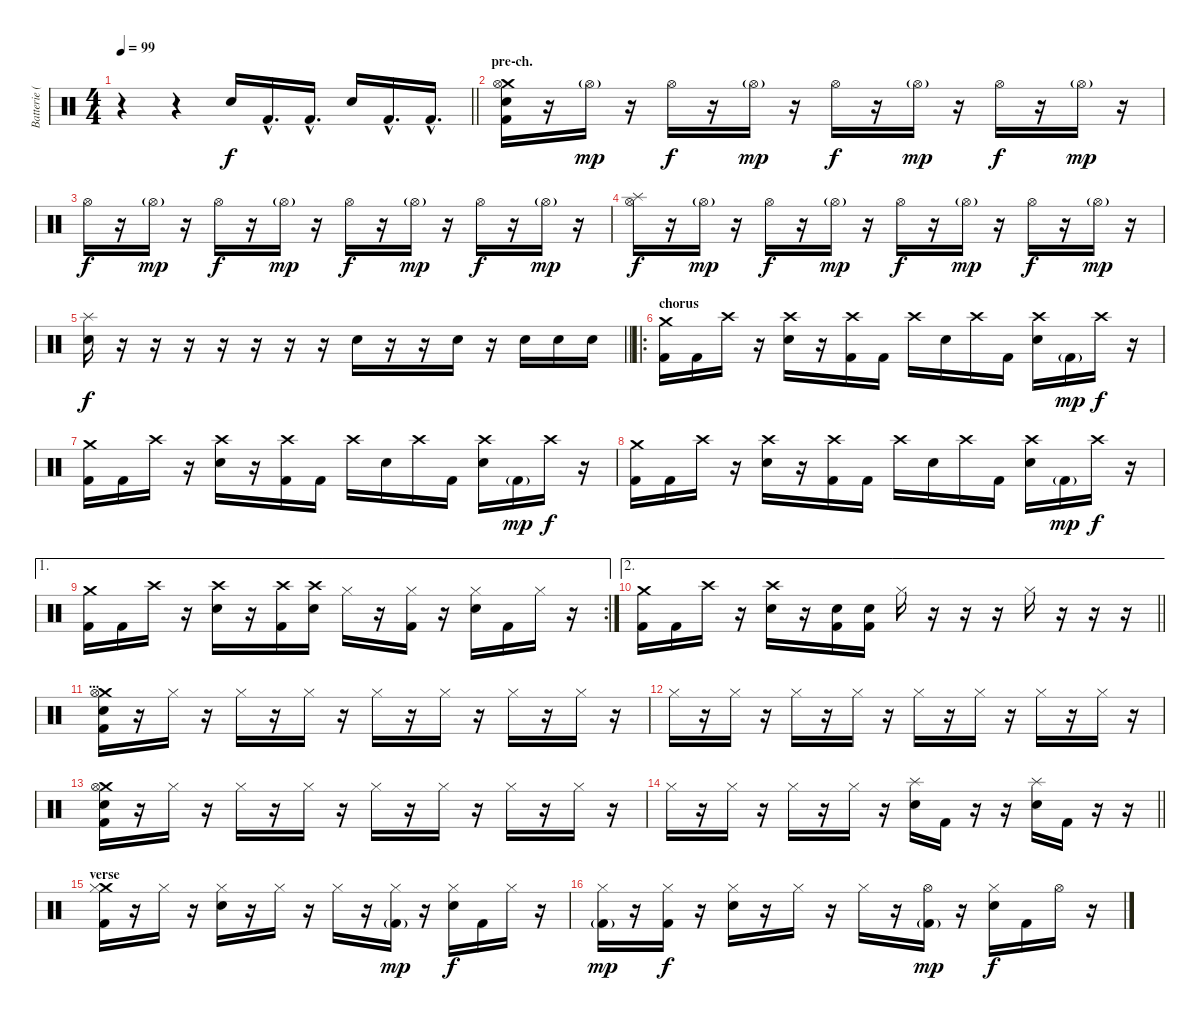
\track ("Batterie (John)" "Batterie (") {instrument percussion}
\staff {score}
\articulation defaults
\ts (4 4)
\tempo 99
\clef neutral
\barLineRight lightlight
\ks c
r.4{dy f} r.4 "Electric Snare (hit)".16 "Kick (hit) 2"{hac}.16{d} "Kick (hit) 2"{hac}.16{d} "Electric Snare (hit)".16 "Kick (hit) 2"{hac}.16{d} "Kick (hit) 2"{hac}.16{d} |
\section ("" "pre-ch.")
("Crash medium (hit)" "Hi-Hat (open)" "Electric Snare (hit)" "Kick (hit) 2").16 r.16 "Hi-Hat (open)"{g}.16{dy mp} r.16 "Hi-Hat (open)".16{dy f} r.16 "Hi-Hat (open)"{g}.16{dy mp} r.16 "Hi-Hat (open)".16{dy f} r.16 "Hi-Hat (open)"{g}.16{dy mp} r.16 "Hi-Hat (open)".16{dy f} r.16 "Hi-Hat (open)"{g}.16{dy mp} r.16 |
"Hi-Hat (open)".16{dy f} r.16 "Hi-Hat (open)"{g}.16{dy mp} r.16 "Hi-Hat (open)".16{dy f} r.16 "Hi-Hat (open)"{g}.16{dy mp} r.16 "Hi-Hat (open)".16{dy f} r.16 "Hi-Hat (open)"{g}.16{dy mp} r.16 "Hi-Hat (open)".16{dy f} r.16 "Hi-Hat (open)"{g}.16{dy mp} r.16 |
("Splash (hit)" "Hi-Hat (open)").16{dy f} r.16 "Hi-Hat (open)"{g}.16{dy mp} r.16 "Hi-Hat (open)".16{dy f} r.16 "Hi-Hat (open)"{g}.16{dy mp} r.16 "Hi-Hat (open)".16{dy f} r.16 "Hi-Hat (open)"{g}.16{dy mp} r.16 "Hi-Hat (open)".16{dy f} r.16 "Hi-Hat (open)"{g}.16{dy mp} r.16 |
\barLineRight lightlight
("Splash (hit)" "Electric Snare (hit)").16{dy f} r.16 r.16 r.16 r.16 r.16 r.16 r.16 "Electric Snare (hit)".16 r.16 r.16 "Electric Snare (hit)".16 r.16 "Electric Snare (hit)".16 "Electric Snare (hit)".16 "Electric Snare (hit)".16 |
\ro
\section ("" "chorus")
("Crash medium (hit)" "Kick (hit) 2").16 "Kick (hit) 2".16 "Crash high (hit)".16 r.16 ("Crash high (hit)" "Electric Snare (hit)").16 r.16 ("Crash high (hit)" "Kick (hit) 2").16 "Kick (hit) 2".16 "Crash high (hit)".16 "Electric Snare (hit)".16 "Crash high (hit)".16 "Kick (hit) 2".16 ("Crash high (hit)" "Electric Snare (hit)").16 "Kick (hit) 2"{g}.16{dy mp} "Crash high (hit)".16{dy f} r.16 |
("Crash medium (hit)" "Kick (hit) 2").16 "Kick (hit) 2".16 "Crash high (hit)".16 r.16 ("Crash high (hit)" "Electric Snare (hit)").16 r.16 ("Crash high (hit)" "Kick (hit) 2").16 "Kick (hit) 2".16 "Crash high (hit)".16 "Electric Snare (hit)".16 "Crash high (hit)".16 "Kick (hit) 2".16 ("Crash high (hit)" "Electric Snare (hit)").16 "Kick (hit) 2"{g}.16{dy mp} "Crash high (hit)".16{dy f} r.16 |
("Crash medium (hit)" "Kick (hit) 2").16 "Kick (hit) 2".16 "Crash high (hit)".16 r.16 ("Crash high (hit)" "Electric Snare (hit)").16 r.16 ("Crash high (hit)" "Kick (hit) 2").16 "Kick (hit) 2".16 "Crash high (hit)".16 "Electric Snare (hit)".16 "Crash high (hit)".16 "Kick (hit) 2".16 ("Crash high (hit)" "Electric Snare (hit)").16 "Kick (hit) 2"{g}.16{dy mp} "Crash high (hit)".16{dy f} r.16 |
\ae 1
\rc 2
("Crash medium (hit)" "Kick (hit) 2").16 "Kick (hit) 2".16 "Crash high (hit)".16 r.16 ("Crash high (hit)" "Electric Snare (hit)").16 r.16 ("Crash high (hit)" "Kick (hit) 2").16 ("Crash high (hit)" "Electric Snare (hit)").16 "Hi-Hat (closed)".16 r.16 ("Hi-Hat (closed)" "Kick (hit) 2").16 r.16 ("Hi-Hat (closed)" "Electric Snare (hit)").16 "Kick (hit) 2".16 "Hi-Hat (closed)".16 r.16 |
\ae 2
\barLineRight lightlight
("Crash medium (hit)" "Kick (hit) 2").16 "Kick (hit) 2".16 "Crash high (hit)".16 r.16 ("Crash high (hit)" "Electric Snare (hit)").16 r.16 ("Electric Snare (hit)" "Kick (hit) 2").16 ("Electric Snare (hit)" "Kick (hit) 2").16 "Hi-Hat (closed)".16 r.16 r.16 r.16 "Hi-Hat (closed)".16 r.16 r.16 r.16 |
\section ("" "...")
("Crash medium (hit)" "Hi-Hat (open)" "Electric Snare (hit)" "Kick (hit) 2").16 r.16 "Hi-Hat (closed)".16 r.16 "Hi-Hat (closed)".16 r.16 "Hi-Hat (closed)".16 r.16 "Hi-Hat (closed)".16 r.16 "Hi-Hat (closed)".16 r.16 "Hi-Hat (closed)".16 r.16 "Hi-Hat (closed)".16 r.16 |
"Hi-Hat (closed)".16 r.16 "Hi-Hat (closed)".16 r.16 "Hi-Hat (closed)".16 r.16 "Hi-Hat (closed)".16 r.16 "Hi-Hat (closed)".16 r.16 "Hi-Hat (closed)".16 r.16 "Hi-Hat (closed)".16 r.16 "Hi-Hat (closed)".16 r.16 |
("Crash medium (hit)" "Hi-Hat (open)" "Electric Snare (hit)" "Kick (hit) 2").16 r.16 "Hi-Hat (closed)".16 r.16 "Hi-Hat (closed)".16 r.16 "Hi-Hat (closed)".16 r.16 "Hi-Hat (closed)".16 r.16 "Hi-Hat (closed)".16 r.16 "Hi-Hat (closed)".16 r.16 "Hi-Hat (closed)".16 r.16 |
\barLineRight lightlight "Hi-Hat (closed)".16
r.16 "Hi-Hat (closed)".16 r.16 "Hi-Hat (closed)".16 r.16 "Hi-Hat (closed)".16 r.16 ("Splash (hit)" "Electric Snare (hit)").16 "Kick (hit) 2".16 r.16 r.16 ("Splash (hit)" "Electric Snare (hit)").16 "Kick (hit) 2".16 r.16 r.16 |
\section ("" "verse")
("Crash medium (hit)" "Hi-Hat (closed)" "Kick (hit) 2").16 r.16 "Hi-Hat (closed)".16 r.16 ("Hi-Hat (closed)" "Electric Snare (hit)").16 r.16 "Hi-Hat (closed)".16 r.16 "Hi-Hat (closed)".16 r.16 ("Hi-Hat (closed)" "Kick (hit) 2"{g}).16{dy mp} r.16 ("Hi-Hat (closed)" "Electric Snare (hit)").16{dy f} "Kick (hit) 2".16 "Hi-Hat (closed)".16 r.16 |
("Hi-Hat (closed)" "Kick (hit) 2"{g}).16{dy mp} r.16 ("Hi-Hat (closed)" "Kick (hit) 2").16{dy f} r.16 ("Hi-Hat (closed)" "Electric Snare (hit)").16 r.16 "Hi-Hat (closed)".16 r.16 "Hi-Hat (closed)".16 r.16 ("Hi-Hat (open)" "Kick (hit) 2"{g}).16{dy mp} r.16 ("Hi-Hat (closed)" "Electric Snare (hit)").16{dy f} "Kick (hit) 2".16 "Hi-Hat (open)".16 r.16
